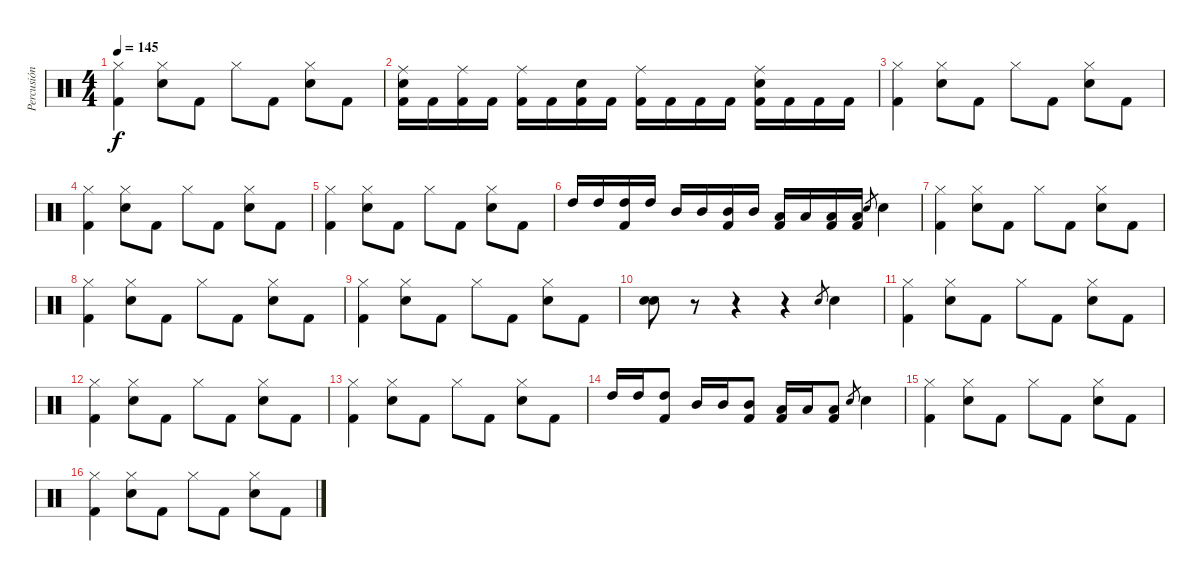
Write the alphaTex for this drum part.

\track ("Percusión" "Percusión") {instrument percussion}
\staff {score}
\articulation defaults
\ts (4 4)
\tempo 145
\clef neutral
\ks c
("Hi-Hat (closed)" "Kick (hit) 2").4{dy f} ("Hi-Hat (closed)" "Snare (hit) 2").8 "Kick (hit) 2".8 "Hi-Hat (closed)".8 "Kick (hit) 2".8 ("Hi-Hat (closed)" "Snare (hit) 2").8 "Kick (hit) 2".8 |
("Ride (middle)" "Snare (hit) 2" "Kick (hit) 2").16 "Kick (hit) 2".16 ("Ride (middle)" "Kick (hit) 2").16 "Kick (hit) 2".16 ("Ride (middle)" "Kick (hit) 2").16 "Kick (hit) 2".16 ("Snare (hit) 2" "Kick (hit) 2").16 "Kick (hit) 2".16 ("Ride (middle)" "Kick (hit) 2").16 "Kick (hit) 2".16 "Kick (hit) 2".16 "Kick (hit) 2".16 ("Ride (middle)" "Snare (hit) 2" "Kick (hit) 2").16 "Kick (hit) 2".16 "Kick (hit) 2".16 "Kick (hit) 2".16 |
("Hi-Hat (closed)" "Kick (hit) 2").4 ("Hi-Hat (closed)" "Snare (hit) 2").8 "Kick (hit) 2".8 "Hi-Hat (closed)".8 "Kick (hit) 2".8 ("Hi-Hat (closed)" "Snare (hit) 2").8 "Kick (hit) 2".8 |
("Hi-Hat (closed)" "Kick (hit) 2").4 ("Hi-Hat (closed)" "Snare (hit) 2").8 "Kick (hit) 2".8 "Hi-Hat (closed)".8 "Kick (hit) 2".8 ("Hi-Hat (closed)" "Snare (hit) 2").8 "Kick (hit) 2".8 |
("Hi-Hat (closed)" "Kick (hit) 2").4 ("Hi-Hat (closed)" "Snare (hit) 2").8 "Kick (hit) 2".8 "Hi-Hat (closed)".8 "Kick (hit) 2".8 ("Hi-Hat (closed)" "Snare (hit) 2").8 "Kick (hit) 2".8 |
"High Tom (hit)".16 "High Tom (hit)".16 ("High Tom (hit)" "Kick (hit) 2").16 "High Tom (hit)".16 "Mid Tom (hit)".16 "Mid Tom (hit)".16 ("Mid Tom (hit)" "Kick (hit) 2").16 "Mid Tom (hit)".16 ("Low Tom (hit)" "Kick (hit) 2").16 "Low Tom (hit)".16 ("Low Tom (hit)" "Kick (hit) 2").16 ("Low Tom (hit)" "Kick (hit) 2").16 "Snare (hit) 2".8{gr} "Snare (hit) 2".4 |
("Hi-Hat (closed)" "Kick (hit) 2").4 ("Hi-Hat (closed)" "Snare (hit) 2").8 "Kick (hit) 2".8 "Hi-Hat (closed)".8 "Kick (hit) 2".8 ("Hi-Hat (closed)" "Snare (hit) 2").8 "Kick (hit) 2".8 |
("Hi-Hat (closed)" "Kick (hit) 2").4 ("Hi-Hat (closed)" "Snare (hit) 2").8 "Kick (hit) 2".8 "Hi-Hat (closed)".8 "Kick (hit) 2".8 ("Hi-Hat (closed)" "Snare (hit) 2").8 "Kick (hit) 2".8 |
("Hi-Hat (closed)" "Kick (hit) 2").4 ("Hi-Hat (closed)" "Snare (hit) 2").8 "Kick (hit) 2".8 "Hi-Hat (closed)".8 "Kick (hit) 2".8 ("Hi-Hat (closed)" "Snare (hit) 2").8 "Kick (hit) 2".8 |
("Snare (hit) 2" "Snare (hit) 2").8 r.8 r.4 r.4 "Snare (hit) 2".8{gr} "Snare (hit) 2".4 |
("Hi-Hat (closed)" "Kick (hit) 2").4 ("Hi-Hat (closed)" "Snare (hit) 2").8 "Kick (hit) 2".8 "Hi-Hat (closed)".8 "Kick (hit) 2".8 ("Hi-Hat (closed)" "Snare (hit) 2").8 "Kick (hit) 2".8 |
("Hi-Hat (closed)" "Kick (hit) 2").4 ("Hi-Hat (closed)" "Snare (hit) 2").8 "Kick (hit) 2".8 "Hi-Hat (closed)".8 "Kick (hit) 2".8 ("Hi-Hat (closed)" "Snare (hit) 2").8 "Kick (hit) 2".8 |
("Hi-Hat (closed)" "Kick (hit) 2").4 ("Hi-Hat (closed)" "Snare (hit) 2").8 "Kick (hit) 2".8 "Hi-Hat (closed)".8 "Kick (hit) 2".8 ("Hi-Hat (closed)" "Snare (hit) 2").8 "Kick (hit) 2".8 |
"High Tom (hit)".16 "High Tom (hit)".16 ("High Tom (hit)" "Kick (hit) 2").8 "Mid Tom (hit)".16 "Mid Tom (hit)".16 ("Mid Tom (hit)" "Kick (hit) 2").8 ("Low Tom (hit)" "Kick (hit) 2").16 "Low Tom (hit)".16 ("Low Tom (hit)" "Kick (hit) 2").8 "Snare (hit) 2".8{gr} "Snare (hit) 2".4 |
("Hi-Hat (closed)" "Kick (hit) 2").4 ("Hi-Hat (closed)" "Snare (hit) 2").8 "Kick (hit) 2".8 "Hi-Hat (closed)".8 "Kick (hit) 2".8 ("Hi-Hat (closed)" "Snare (hit) 2").8 "Kick (hit) 2".8 |
("Hi-Hat (closed)" "Kick (hit) 2").4 ("Hi-Hat (closed)" "Snare (hit) 2").8 "Kick (hit) 2".8 "Hi-Hat (closed)".8 "Kick (hit) 2".8 ("Hi-Hat (closed)" "Snare (hit) 2").8 "Kick (hit) 2".8
